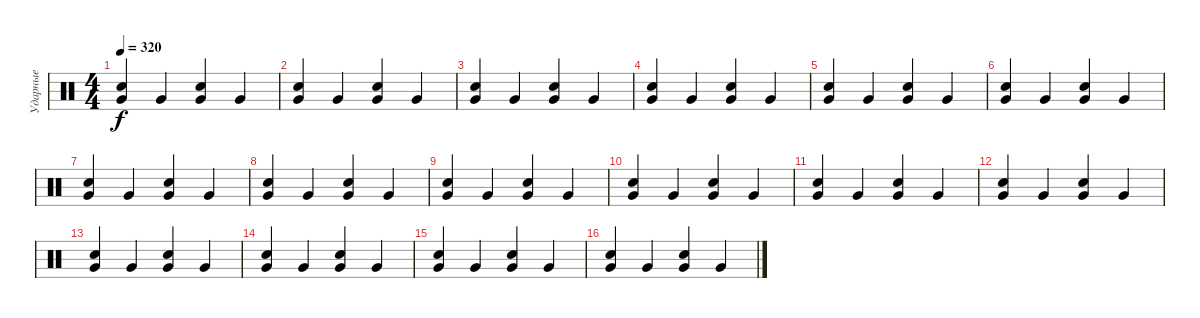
\track ("Ударные" "Ударные") {instrument percussion}
\staff {score}
\articulation defaults
\ts (4 4)
\tempo 320
\clef neutral
\ks c
("Very Low Tom (hit)" "Electric Snare (hit)").4{dy f} "Very Low Tom (hit)".4 ("Very Low Tom (hit)" "Electric Snare (hit)").4 "Very Low Tom (hit)".4 |
("Very Low Tom (hit)" "Electric Snare (hit)").4 "Very Low Tom (hit)".4 ("Very Low Tom (hit)" "Electric Snare (hit)").4 "Very Low Tom (hit)".4 |
("Very Low Tom (hit)" "Electric Snare (hit)").4 "Very Low Tom (hit)".4 ("Very Low Tom (hit)" "Electric Snare (hit)").4 "Very Low Tom (hit)".4 |
("Very Low Tom (hit)" "Electric Snare (hit)").4 "Very Low Tom (hit)".4 ("Very Low Tom (hit)" "Electric Snare (hit)").4 "Very Low Tom (hit)".4 |
("Very Low Tom (hit)" "Electric Snare (hit)").4 "Very Low Tom (hit)".4 ("Very Low Tom (hit)" "Electric Snare (hit)").4 "Very Low Tom (hit)".4 |
("Very Low Tom (hit)" "Electric Snare (hit)").4 "Very Low Tom (hit)".4 ("Very Low Tom (hit)" "Electric Snare (hit)").4 "Very Low Tom (hit)".4 |
("Very Low Tom (hit)" "Electric Snare (hit)").4 "Very Low Tom (hit)".4 ("Very Low Tom (hit)" "Electric Snare (hit)").4 "Very Low Tom (hit)".4 |
("Very Low Tom (hit)" "Electric Snare (hit)").4 "Very Low Tom (hit)".4 ("Very Low Tom (hit)" "Electric Snare (hit)").4 "Very Low Tom (hit)".4 |
("Very Low Tom (hit)" "Electric Snare (hit)").4 "Very Low Tom (hit)".4 ("Very Low Tom (hit)" "Electric Snare (hit)").4 "Very Low Tom (hit)".4 |
("Very Low Tom (hit)" "Electric Snare (hit)").4 "Very Low Tom (hit)".4 ("Very Low Tom (hit)" "Electric Snare (hit)").4 "Very Low Tom (hit)".4 |
("Very Low Tom (hit)" "Electric Snare (hit)").4 "Very Low Tom (hit)".4 ("Very Low Tom (hit)" "Electric Snare (hit)").4 "Very Low Tom (hit)".4 |
("Very Low Tom (hit)" "Electric Snare (hit)").4 "Very Low Tom (hit)".4 ("Very Low Tom (hit)" "Electric Snare (hit)").4 "Very Low Tom (hit)".4 |
("Very Low Tom (hit)" "Electric Snare (hit)").4 "Very Low Tom (hit)".4 ("Very Low Tom (hit)" "Electric Snare (hit)").4 "Very Low Tom (hit)".4 |
("Very Low Tom (hit)" "Electric Snare (hit)").4 "Very Low Tom (hit)".4 ("Very Low Tom (hit)" "Electric Snare (hit)").4 "Very Low Tom (hit)".4 |
("Very Low Tom (hit)" "Electric Snare (hit)").4 "Very Low Tom (hit)".4 ("Very Low Tom (hit)" "Electric Snare (hit)").4 "Very Low Tom (hit)".4 |
("Very Low Tom (hit)" "Electric Snare (hit)").4 "Very Low Tom (hit)".4 ("Very Low Tom (hit)" "Electric Snare (hit)").4 "Very Low Tom (hit)".4
